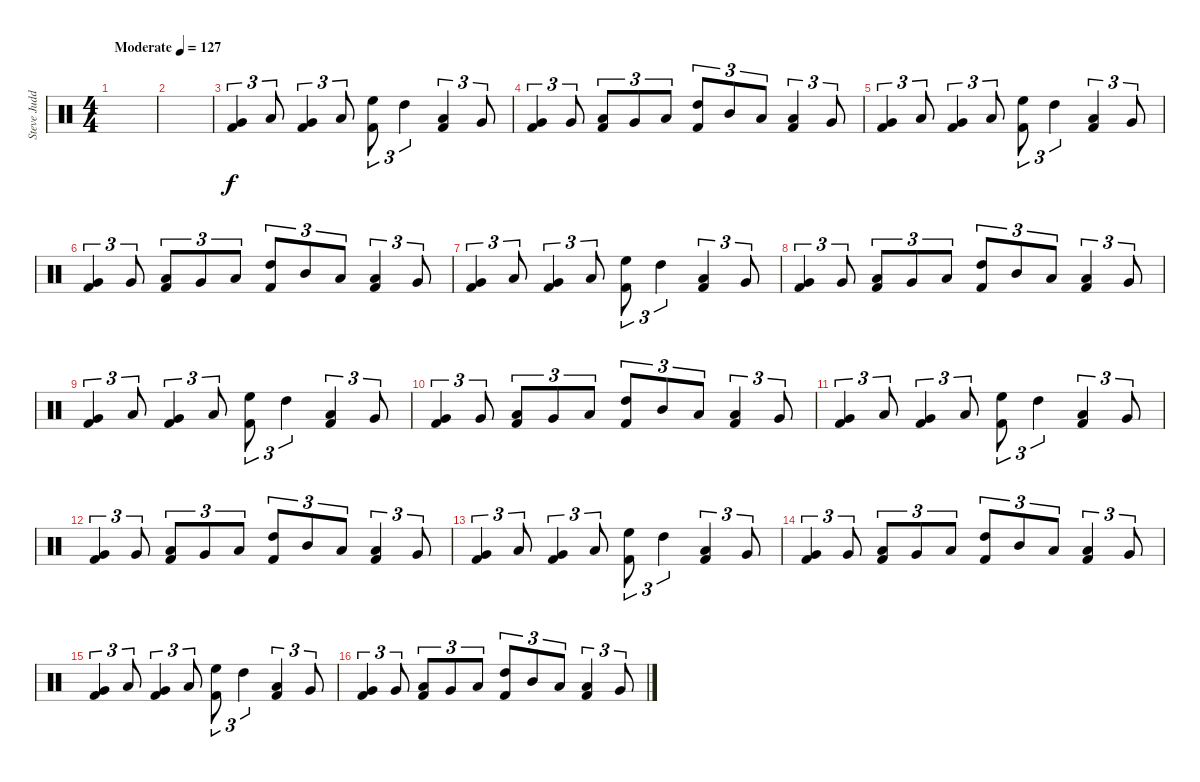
\track ("Steve Judd - Drums" "Steve Judd") {mute instrument percussion}
\staff {score}
\articulation defaults
\ts (4 4)
\tempo (127 "Moderate")
\clef neutral
\ks c
|
|
("Very Low Tom (hit)" "Kick (hit) 2").4{tu (3 2)} "Low Floor Tom (hit)".8{tu (3 2)} ("Very Low Tom (hit)" "Kick (hit) 2").4{tu (3 2)} "Low Floor Tom (hit)".8{tu (3 2)} ("High Floor Tom (hit)" "Kick (hit) 2").8{tu (3 2)} "High Tom (hit)".4{tu (3 2)} ("Low Floor Tom (hit)" "Kick (hit) 2").4{tu (3 2)} "Very Low Tom (hit)".8{tu (3 2)} |
("Very Low Tom (hit)" "Kick (hit) 2").4{tu (3 2)} "Very Low Tom (hit)".8{tu (3 2)} ("Low Floor Tom (hit)" "Kick (hit) 2").8{tu (3 2)} "Very Low Tom (hit)".8{tu (3 2)} "Low Tom (hit)".8{tu (3 2)} ("High Tom (hit)" "Kick (hit) 2").8{tu (3 2)} "Mid Tom (hit)".8{tu (3 2)} "Low Tom (hit)".8{tu (3 2)} ("Low Floor Tom (hit)" "Kick (hit) 2").4{tu (3 2)} "Very Low Tom (hit)".8{tu (3 2)} |
("Very Low Tom (hit)" "Kick (hit) 2").4{tu (3 2)} "Low Floor Tom (hit)".8{tu (3 2)} ("Very Low Tom (hit)" "Kick (hit) 2").4{tu (3 2)} "Low Floor Tom (hit)".8{tu (3 2)} ("High Floor Tom (hit)" "Kick (hit) 2").8{tu (3 2)} "High Tom (hit)".4{tu (3 2)} ("Low Floor Tom (hit)" "Kick (hit) 2").4{tu (3 2)} "Very Low Tom (hit)".8{tu (3 2)} |
("Very Low Tom (hit)" "Kick (hit) 2").4{tu (3 2)} "Very Low Tom (hit)".8{tu (3 2)} ("Low Floor Tom (hit)" "Kick (hit) 2").8{tu (3 2)} "Very Low Tom (hit)".8{tu (3 2)} "Low Tom (hit)".8{tu (3 2)} ("High Tom (hit)" "Kick (hit) 2").8{tu (3 2)} "Mid Tom (hit)".8{tu (3 2)} "Low Tom (hit)".8{tu (3 2)} ("Low Floor Tom (hit)" "Kick (hit) 2").4{tu (3 2)} "Very Low Tom (hit)".8{tu (3 2)} |
("Very Low Tom (hit)" "Kick (hit) 2").4{tu (3 2)} "Low Floor Tom (hit)".8{tu (3 2)} ("Very Low Tom (hit)" "Kick (hit) 2").4{tu (3 2)} "Low Floor Tom (hit)".8{tu (3 2)} ("High Floor Tom (hit)" "Kick (hit) 2").8{tu (3 2)} "High Tom (hit)".4{tu (3 2)} ("Low Floor Tom (hit)" "Kick (hit) 2").4{tu (3 2)} "Very Low Tom (hit)".8{tu (3 2)} |
("Very Low Tom (hit)" "Kick (hit) 2").4{tu (3 2)} "Very Low Tom (hit)".8{tu (3 2)} ("Low Floor Tom (hit)" "Kick (hit) 2").8{tu (3 2)} "Very Low Tom (hit)".8{tu (3 2)} "Low Tom (hit)".8{tu (3 2)} ("High Tom (hit)" "Kick (hit) 2").8{tu (3 2)} "Mid Tom (hit)".8{tu (3 2)} "Low Tom (hit)".8{tu (3 2)} ("Low Floor Tom (hit)" "Kick (hit) 2").4{tu (3 2)} "Very Low Tom (hit)".8{tu (3 2)} |
("Very Low Tom (hit)" "Kick (hit) 2").4{tu (3 2)} "Low Floor Tom (hit)".8{tu (3 2)} ("Very Low Tom (hit)" "Kick (hit) 2").4{tu (3 2)} "Low Floor Tom (hit)".8{tu (3 2)} ("High Floor Tom (hit)" "Kick (hit) 2").8{tu (3 2)} "High Tom (hit)".4{tu (3 2)} ("Low Floor Tom (hit)" "Kick (hit) 2").4{tu (3 2)} "Very Low Tom (hit)".8{tu (3 2)} |
("Very Low Tom (hit)" "Kick (hit) 2").4{tu (3 2)} "Very Low Tom (hit)".8{tu (3 2)} ("Low Floor Tom (hit)" "Kick (hit) 2").8{tu (3 2)} "Very Low Tom (hit)".8{tu (3 2)} "Low Tom (hit)".8{tu (3 2)} ("High Tom (hit)" "Kick (hit) 2").8{tu (3 2)} "Mid Tom (hit)".8{tu (3 2)} "Low Tom (hit)".8{tu (3 2)} ("Low Floor Tom (hit)" "Kick (hit) 2").4{tu (3 2)} "Very Low Tom (hit)".8{tu (3 2)} |
("Very Low Tom (hit)" "Kick (hit) 2").4{tu (3 2)} "Low Floor Tom (hit)".8{tu (3 2)} ("Very Low Tom (hit)" "Kick (hit) 2").4{tu (3 2)} "Low Floor Tom (hit)".8{tu (3 2)} ("High Floor Tom (hit)" "Kick (hit) 2").8{tu (3 2)} "High Tom (hit)".4{tu (3 2)} ("Low Floor Tom (hit)" "Kick (hit) 2").4{tu (3 2)} "Very Low Tom (hit)".8{tu (3 2)} |
("Very Low Tom (hit)" "Kick (hit) 2").4{tu (3 2)} "Very Low Tom (hit)".8{tu (3 2)} ("Low Floor Tom (hit)" "Kick (hit) 2").8{tu (3 2)} "Very Low Tom (hit)".8{tu (3 2)} "Low Tom (hit)".8{tu (3 2)} ("High Tom (hit)" "Kick (hit) 2").8{tu (3 2)} "Mid Tom (hit)".8{tu (3 2)} "Low Tom (hit)".8{tu (3 2)} ("Low Floor Tom (hit)" "Kick (hit) 2").4{tu (3 2)} "Very Low Tom (hit)".8{tu (3 2)} |
("Very Low Tom (hit)" "Kick (hit) 2").4{tu (3 2)} "Low Floor Tom (hit)".8{tu (3 2)} ("Very Low Tom (hit)" "Kick (hit) 2").4{tu (3 2)} "Low Floor Tom (hit)".8{tu (3 2)} ("High Floor Tom (hit)" "Kick (hit) 2").8{tu (3 2)} "High Tom (hit)".4{tu (3 2)} ("Low Floor Tom (hit)" "Kick (hit) 2").4{tu (3 2)} "Very Low Tom (hit)".8{tu (3 2)} |
("Very Low Tom (hit)" "Kick (hit) 2").4{tu (3 2)} "Very Low Tom (hit)".8{tu (3 2)} ("Low Floor Tom (hit)" "Kick (hit) 2").8{tu (3 2)} "Very Low Tom (hit)".8{tu (3 2)} "Low Tom (hit)".8{tu (3 2)} ("High Tom (hit)" "Kick (hit) 2").8{tu (3 2)} "Mid Tom (hit)".8{tu (3 2)} "Low Tom (hit)".8{tu (3 2)} ("Low Floor Tom (hit)" "Kick (hit) 2").4{tu (3 2)} "Very Low Tom (hit)".8{tu (3 2)} |
("Very Low Tom (hit)" "Kick (hit) 2").4{tu (3 2)} "Low Floor Tom (hit)".8{tu (3 2)} ("Very Low Tom (hit)" "Kick (hit) 2").4{tu (3 2)} "Low Floor Tom (hit)".8{tu (3 2)} ("High Floor Tom (hit)" "Kick (hit) 2").8{tu (3 2)} "High Tom (hit)".4{tu (3 2)} ("Low Floor Tom (hit)" "Kick (hit) 2").4{tu (3 2)} "Very Low Tom (hit)".8{tu (3 2)} |
("Very Low Tom (hit)" "Kick (hit) 2").4{tu (3 2)} "Very Low Tom (hit)".8{tu (3 2)} ("Low Floor Tom (hit)" "Kick (hit) 2").8{tu (3 2)} "Very Low Tom (hit)".8{tu (3 2)} "Low Tom (hit)".8{tu (3 2)} ("High Tom (hit)" "Kick (hit) 2").8{tu (3 2)} "Mid Tom (hit)".8{tu (3 2)} "Low Tom (hit)".8{tu (3 2)} ("Low Floor Tom (hit)" "Kick (hit) 2").4{tu (3 2)} "Very Low Tom (hit)".8{tu (3 2)}
